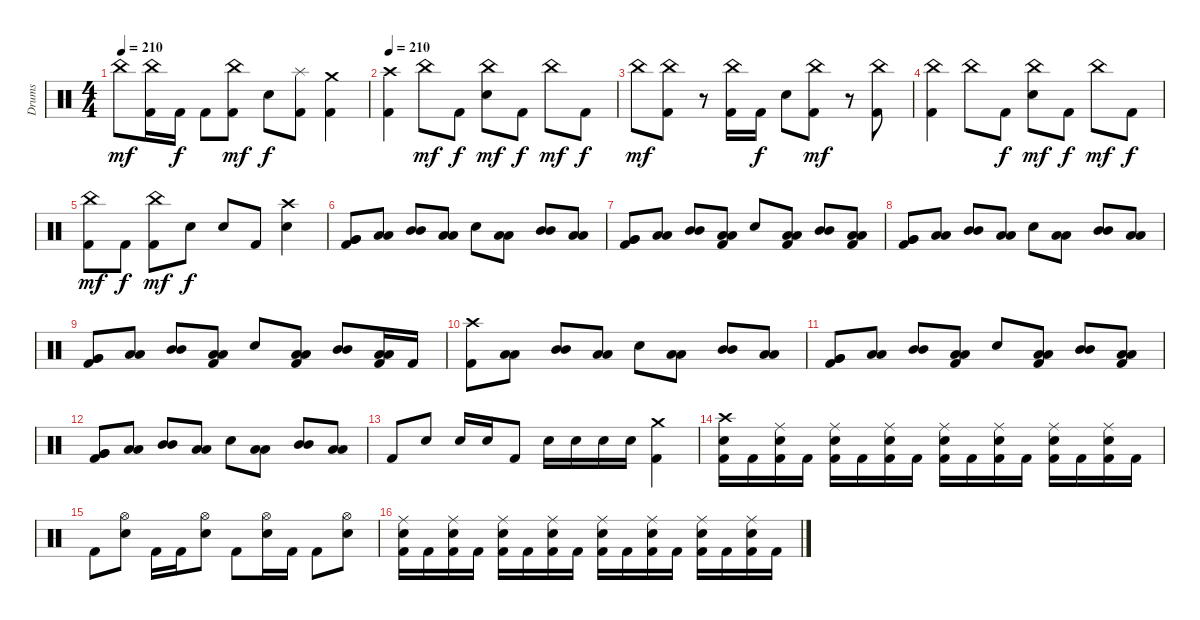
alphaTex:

\track ("Drums" "Drums") {instrument percussion}
\staff {score}
\articulation defaults
\ts (4 4)
\tempo 210
\clef neutral
\ks c "China (hit)".8{dy mf}
("China (hit)" "Kick (hit) 2").16 "Kick (hit) 2".16{dy f} "Kick (hit) 2".8 ("China (hit)" "Kick (hit) 2").8{dy mf} "Electric Snare (hit)".8{dy f} ("Splash (hit)" "Kick (hit) 2").8 ("Crash medium (hit)" "Kick (hit) 2").4 |
\tempo 210
("Crash high (hit)" "Kick (hit) 2").4 "China (hit)".8{dy mf} "Kick (hit) 2".8{dy f} ("China (hit)" "Electric Snare (hit)").8{dy mf} "Kick (hit) 2".8{dy f} "China (hit)".8{dy mf} "Kick (hit) 2".8{dy f} |
"China (hit)".8{dy mf} ("China (hit)" "Kick (hit) 2").8 r.8 ("China (hit)" "Kick (hit) 2").16 "Kick (hit) 2".16{dy f} "Electric Snare (hit)".8 ("China (hit)" "Kick (hit) 2").8{dy mf} r.8 ("China (hit)" "Kick (hit) 2").8 |
("China (hit)" "Kick (hit) 2").4 "China (hit)".8 "Kick (hit) 2".8{dy f} ("China (hit)" "Electric Snare (hit)").8{dy mf} "Kick (hit) 2".8{dy f} "China (hit)".8{dy mf} "Kick (hit) 2".8{dy f} |
("China (hit)" "Kick (hit) 2").8{dy mf} "Kick (hit) 2".8{dy f} ("China (hit)" "Kick (hit) 2").8{dy mf} "Electric Snare (hit)".8{dy f} "Electric Snare (hit)".8 "Kick (hit) 2".8 ("Crash high (hit)" "Electric Snare (hit)").4 |
("Very Low Tom (hit)" "Very Low Tom (hit)" "Kick (hit) 2").8 ("Low Tom (hit)" "Low Tom (hit)").8 ("Mid Tom (hit)" "Mid Tom (hit)").8 ("Low Tom (hit)" "Low Tom (hit)").8 "Electric Snare (hit)".8 ("Low Tom (hit)" "Low Tom (hit)").8 ("Mid Tom (hit)" "Mid Tom (hit)").8 ("Low Tom (hit)" "Low Tom (hit)").8 |
("Very Low Tom (hit)" "Very Low Tom (hit)" "Kick (hit) 2").8 ("Low Tom (hit)" "Low Tom (hit)").8 ("Mid Tom (hit)" "Mid Tom (hit)").8 ("Low Tom (hit)" "Low Tom (hit)" "Kick (hit) 2").8 "Electric Snare (hit)".8 ("Low Tom (hit)" "Low Tom (hit)" "Kick (hit) 2").8 ("Mid Tom (hit)" "Mid Tom (hit)").8 ("Low Tom (hit)" "Low Tom (hit)" "Kick (hit) 2").8 |
("Very Low Tom (hit)" "Very Low Tom (hit)" "Kick (hit) 2").8 ("Low Tom (hit)" "Low Tom (hit)").8 ("Mid Tom (hit)" "Mid Tom (hit)").8 ("Low Tom (hit)" "Low Tom (hit)").8 "Electric Snare (hit)".8 ("Low Tom (hit)" "Low Tom (hit)").8 ("Mid Tom (hit)" "Mid Tom (hit)").8 ("Low Tom (hit)" "Low Tom (hit)").8 |
("Very Low Tom (hit)" "Very Low Tom (hit)" "Kick (hit) 2").8 ("Low Tom (hit)" "Low Tom (hit)").8 ("Mid Tom (hit)" "Mid Tom (hit)").8 ("Low Tom (hit)" "Low Tom (hit)" "Kick (hit) 2").8 "Electric Snare (hit)".8 ("Low Tom (hit)" "Low Tom (hit)" "Kick (hit) 2").8 ("Mid Tom (hit)" "Mid Tom (hit)").8 ("Low Tom (hit)" "Low Tom (hit)" "Kick (hit) 2").16 "Kick (hit) 2".16 |
("Crash high (hit)" "Kick (hit) 2").8 ("Low Tom (hit)" "Low Tom (hit)").8 ("Mid Tom (hit)" "Mid Tom (hit)").8 ("Low Tom (hit)" "Low Tom (hit)").8 "Electric Snare (hit)".8 ("Low Tom (hit)" "Low Tom (hit)").8 ("Mid Tom (hit)" "Mid Tom (hit)").8 ("Low Tom (hit)" "Low Tom (hit)").8 |
("Very Low Tom (hit)" "Very Low Tom (hit)" "Kick (hit) 2").8 ("Low Tom (hit)" "Low Tom (hit)").8 ("Mid Tom (hit)" "Mid Tom (hit)").8 ("Low Tom (hit)" "Low Tom (hit)" "Kick (hit) 2").8 "Electric Snare (hit)".8 ("Low Tom (hit)" "Low Tom (hit)" "Kick (hit) 2").8 ("Mid Tom (hit)" "Mid Tom (hit)").8 ("Low Tom (hit)" "Low Tom (hit)" "Kick (hit) 2").8 |
("Very Low Tom (hit)" "Very Low Tom (hit)" "Kick (hit) 2").8 ("Low Tom (hit)" "Low Tom (hit)").8 ("Mid Tom (hit)" "Mid Tom (hit)").8 ("Low Tom (hit)" "Low Tom (hit)").8 "Electric Snare (hit)".8 ("Low Tom (hit)" "Low Tom (hit)").8 ("Mid Tom (hit)" "Mid Tom (hit)").8 ("Low Tom (hit)" "Low Tom (hit)").8 |
"Kick (hit) 2".8 "Electric Snare (hit)".8 "Electric Snare (hit)".16 "Electric Snare (hit)".16 "Kick (hit) 2".8 "Electric Snare (hit)".16 "Electric Snare (hit)".16 "Electric Snare (hit)".16 "Electric Snare (hit)".16 ("Crash medium (hit)" "Kick (hit) 2").4 |
("Crash high (hit)" "Electric Snare (hit)" "Kick (hit) 2").16 "Kick (hit) 2".16 ("Ride (middle)" "Electric Snare (hit)" "Kick (hit) 2").16 "Kick (hit) 2".16 ("Ride (middle)" "Electric Snare (hit)" "Kick (hit) 2").16 "Kick (hit) 2".16 ("Ride (middle)" "Electric Snare (hit)" "Kick (hit) 2").16 "Kick (hit) 2".16 ("Ride (middle)" "Electric Snare (hit)" "Kick (hit) 2").16 "Kick (hit) 2".16 ("Ride (middle)" "Electric Snare (hit)" "Kick (hit) 2").16 "Kick (hit) 2".16 ("Ride (middle)" "Electric Snare (hit)" "Kick (hit) 2").16 "Kick (hit) 2".16 ("Ride (middle)" "Electric Snare (hit)" "Kick (hit) 2").16 "Kick (hit) 2".16 |
"Kick (hit) 2".8 ("Hi-Hat (open)" "Electric Snare (hit)").8 "Kick (hit) 2".16 "Kick (hit) 2".16 ("Hi-Hat (open)" "Electric Snare (hit)").8 "Kick (hit) 2".8 ("Hi-Hat (open)" "Electric Snare (hit)").16 "Kick (hit) 2".16 "Kick (hit) 2".8 ("Hi-Hat (open)" "Electric Snare (hit)").8 |
("Ride (middle)" "Electric Snare (hit)" "Kick (hit) 2").16 "Kick (hit) 2".16 ("Ride (middle)" "Electric Snare (hit)" "Kick (hit) 2").16 "Kick (hit) 2".16 ("Ride (middle)" "Electric Snare (hit)" "Kick (hit) 2").16 "Kick (hit) 2".16 ("Ride (middle)" "Electric Snare (hit)" "Kick (hit) 2").16 "Kick (hit) 2".16 ("Ride (middle)" "Electric Snare (hit)" "Kick (hit) 2").16 "Kick (hit) 2".16 ("Ride (middle)" "Electric Snare (hit)" "Kick (hit) 2").16 "Kick (hit) 2".16 ("Ride (middle)" "Electric Snare (hit)" "Kick (hit) 2").16 "Kick (hit) 2".16 ("Ride (middle)" "Electric Snare (hit)" "Kick (hit) 2").16 "Kick (hit) 2".16
